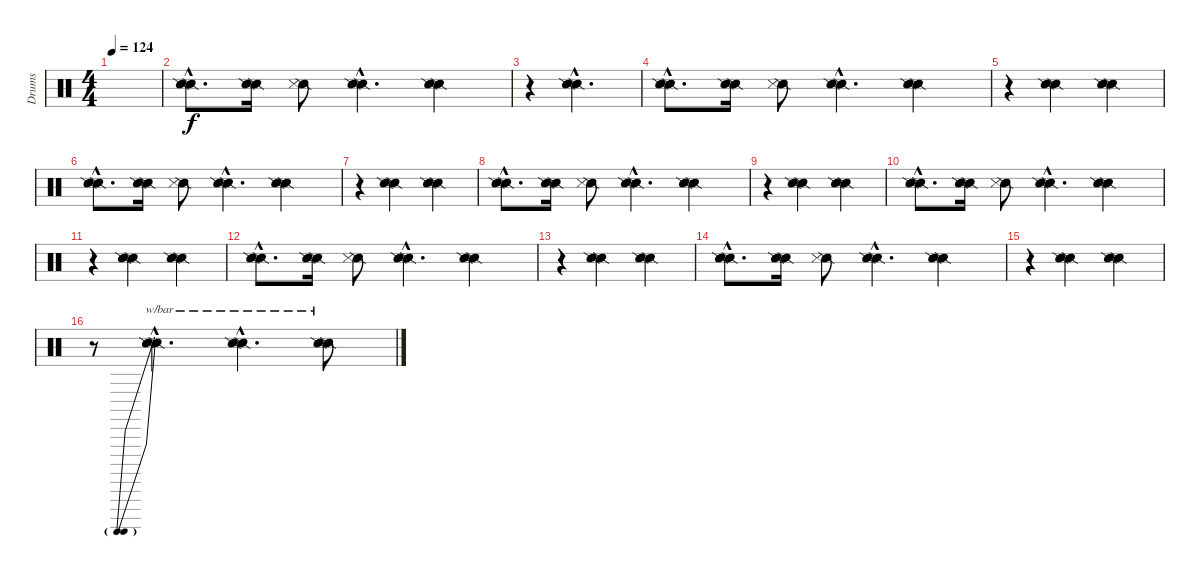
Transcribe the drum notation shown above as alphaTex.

\track ("Drums" "Drums") {instrument percussion}
\staff {score}
\articulation defaults
\ts (4 4)
\tempo 124
\clef neutral
\ks c
|
("Snare (side stick) 2"{hac} "Snare (side stick) 2"{hac}).8{d} ("Snare (side stick) 2" "Snare (side stick) 2").16 ("Snare (side stick) 2" "Snare (side stick) 3").8 ("Snare (side stick) 2"{hac} "Snare (side stick) 2"{hac}).4{d} ("Snare (side stick) 2" "Snare (side stick) 2").4 |
r.4 ("Snare (side stick) 2"{hac} "Snare (side stick) 2"{hac}).2{d} |
("Snare (side stick) 2"{hac} "Snare (side stick) 2"{hac}).8{d} ("Snare (side stick) 2" "Snare (side stick) 2").16 ("Snare (side stick) 2" "Snare (side stick) 3").8 ("Snare (side stick) 2"{hac} "Snare (side stick) 2"{hac}).4{d} ("Snare (side stick) 2" "Snare (side stick) 2").4 |
r.4 ("Snare (side stick) 2" "Snare (side stick) 2").2 ("Snare (side stick) 2" "Snare (side stick) 2").4 |
("Snare (side stick) 2"{hac} "Snare (side stick) 2"{hac}).8{d} ("Snare (side stick) 2" "Snare (side stick) 2").16 ("Snare (side stick) 2" "Snare (side stick) 3").8 ("Snare (side stick) 2"{hac} "Snare (side stick) 2"{hac}).4{d} ("Snare (side stick) 2" "Snare (side stick) 2").4 |
r.4 ("Snare (side stick) 2" "Snare (side stick) 2").2{volume 16} ("Snare (side stick) 2" "Snare (side stick) 2").4 |
("Snare (side stick) 2"{hac} "Snare (side stick) 2"{hac}).8{d} ("Snare (side stick) 2" "Snare (side stick) 2").16 ("Snare (side stick) 2" "Snare (side stick) 3").8 ("Snare (side stick) 2"{hac} "Snare (side stick) 2"{hac}).4{d} ("Snare (side stick) 2" "Snare (side stick) 2").4 |
r.4 ("Snare (side stick) 2" "Snare (side stick) 2").2 ("Snare (side stick) 2" "Snare (side stick) 2").4 |
("Snare (side stick) 2"{hac} "Snare (side stick) 2"{hac}).8{d} ("Snare (side stick) 2" "Snare (side stick) 2").16 ("Snare (side stick) 2" "Snare (side stick) 3").8 ("Snare (side stick) 2"{hac} "Snare (side stick) 2"{hac}).4{d} ("Snare (side stick) 2" "Snare (side stick) 2").4 |
r.4 ("Snare (side stick) 2" "Snare (side stick) 2").2 ("Snare (side stick) 2" "Snare (side stick) 2").4 |
("Snare (side stick) 2"{hac} "Snare (side stick) 2"{hac}).8{d} ("Snare (side stick) 2" "Snare (side stick) 2").16 ("Snare (side stick) 2" "Snare (side stick) 3").8 ("Snare (side stick) 2"{hac} "Snare (side stick) 2"{hac}).4{d} ("Snare (side stick) 2" "Snare (side stick) 2").4 |
r.4 ("Snare (side stick) 2" "Snare (side stick) 2").2 ("Snare (side stick) 2" "Snare (side stick) 2").4 |
("Snare (side stick) 2"{hac} "Snare (side stick) 2"{hac}).8{d} ("Snare (side stick) 2" "Snare (side stick) 2").16 ("Snare (side stick) 2" "Snare (side stick) 3").8 ("Snare (side stick) 2"{hac} "Snare (side stick) 2"{hac}).4{d} ("Snare (side stick) 2" "Snare (side stick) 2").4 |
r.4 ("Snare (side stick) 2" "Snare (side stick) 2").2 ("Snare (side stick) 2" "Snare (side stick) 2").4 |
r.8 ("Snare (side stick) 2"{hac} "Snare (side stick) 2"{hac}).4{d tbe (predive default 0 -12 60 -12)} ("Snare (side stick) 2"{hac} "Snare (side stick) 2"{hac}).4{d tbe (hold default 0 -18 60 -18)} ("Snare (side stick) 2" "Snare (side stick) 2").8{tbe (hold default 0 -24 60 -24)}
